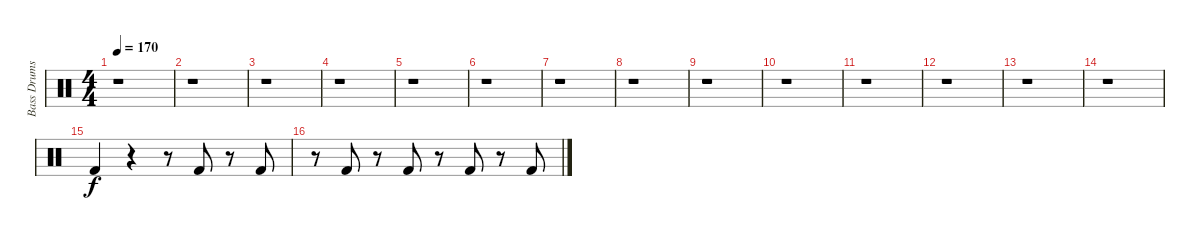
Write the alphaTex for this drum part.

\track ("Bass Drums" "Bass Drums") {instrument percussion}
\staff {score}
\articulation defaults
\ts (4 4)
\tempo 170
\clef neutral
\ks c
r.1{dy f} |
r.1 |
r.1 |
r.1 |
r.1 |
r.1 |
r.1 |
r.1 |
r.1 |
r.1 |
r.1 |
r.1 |
r.1 |
r.1 |
"Kick (hit) 2".4 r.4 r.8 "Kick (hit) 2".8 r.8 "Kick (hit) 2".8 |
r.8 "Kick (hit) 2".8 r.8 "Kick (hit) 2".8 r.8 "Kick (hit) 2".8 r.8 "Kick (hit) 2".8
